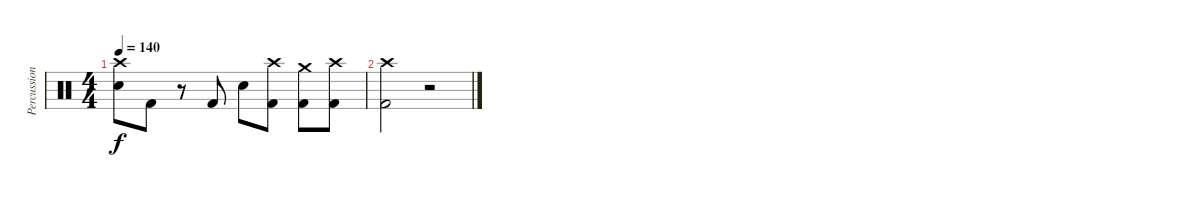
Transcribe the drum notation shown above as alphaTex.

\track ("Percussion" "Percussion") {instrument percussion}
\staff {score}
\articulation defaults
\ts (4 4)
\tempo 140
\clef neutral
\ks c
("Crash high (hit)" "Snare (hit) 2").8{dy f} "Kick (hit) 2".8 r.8 "Kick (hit) 2".8 "Snare (hit) 2".8 ("Crash high (hit)" "Kick (hit) 2").8 ("Crash medium (hit)" "Kick (hit) 2").8 ("Crash high (hit)" "Kick (hit) 2").8 |
("Crash high (hit)" "Kick (hit) 2").2 r.2
